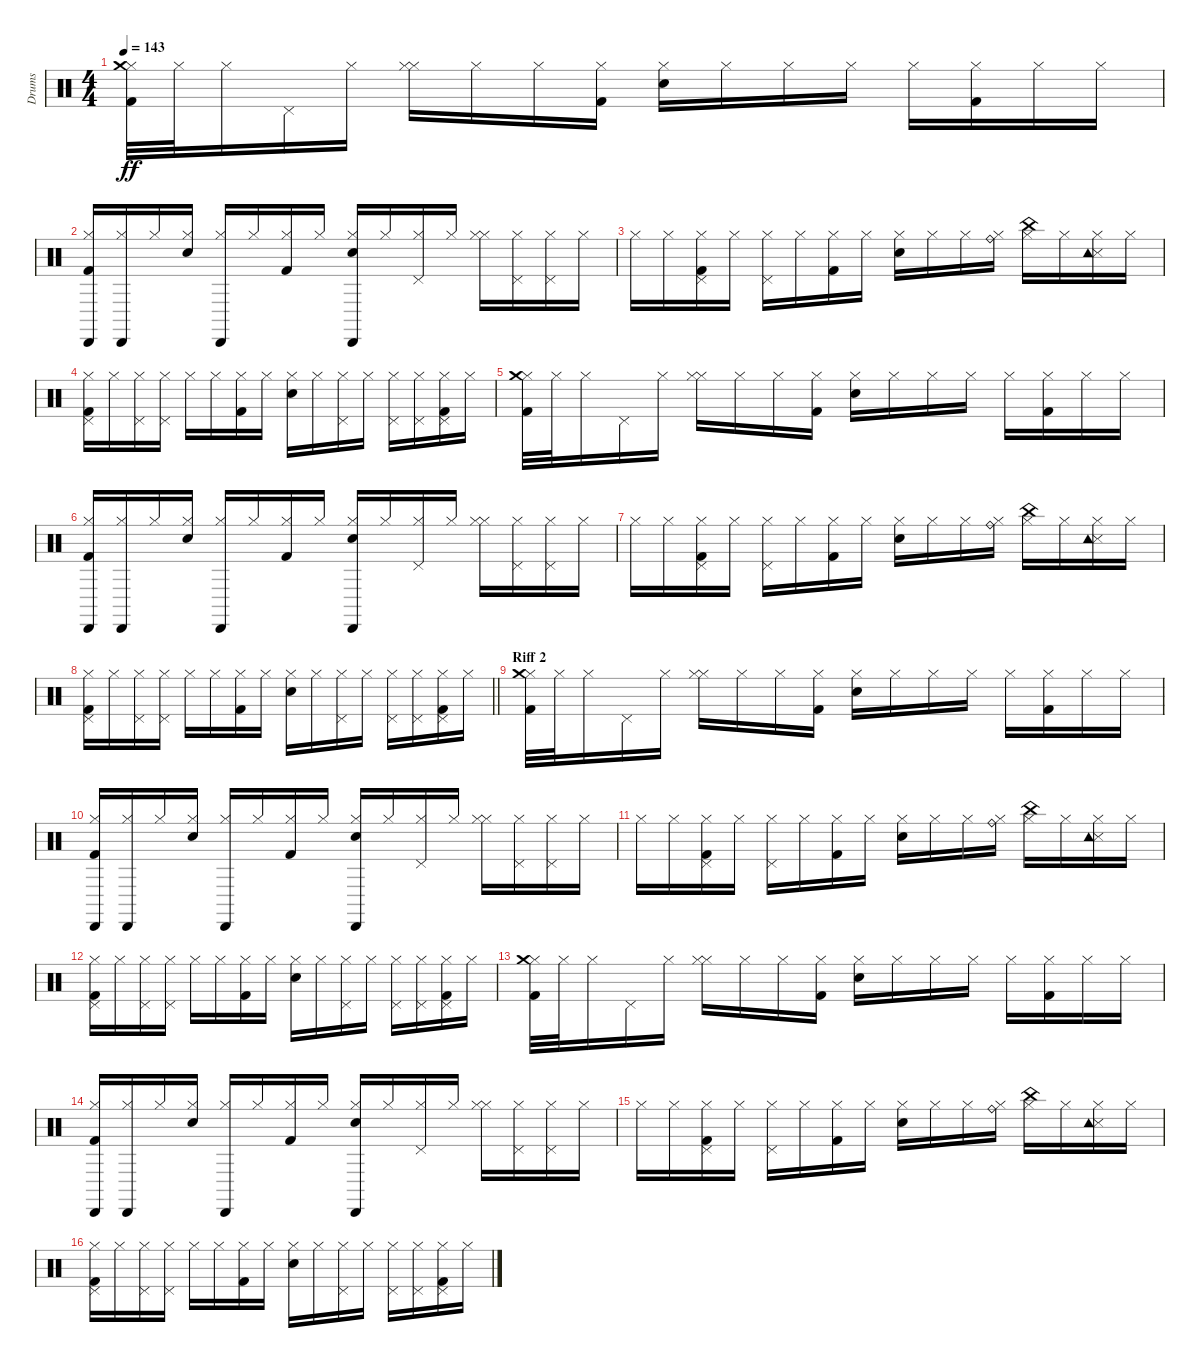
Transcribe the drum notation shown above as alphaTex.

\track ("Drums" "Drums") {instrument percussion}
\staff {score}
\articulation defaults
\ts (4 4)
\tempo 143
\clef neutral
\ks c
("Kick (hit) 2" "Hi-Hat (closed)" "Crash medium (hit)").32{dy ff} "Hi-Hat (closed)".32 "Hi-Hat (closed)".16 "Pedal Hi-Hat (hit)".16 "Hi-Hat (closed)".16 ("Hi-Hat (closed)" "Hi-Hat (closed)").16 "Hi-Hat (closed)".16 "Hi-Hat (closed)".16 ("Kick (hit) 2" "Hi-Hat (closed)").16 ("Snare (hit) 2" "Hi-Hat (closed)").16 "Hi-Hat (closed)".16 "Hi-Hat (closed)".16 "Hi-Hat (closed)".16 "Hi-Hat (closed)".16 ("Kick (hit) 2" "Hi-Hat (closed)").16 "Hi-Hat (closed)".16 "Hi-Hat (closed)".16 |
("Kick (hit) 2" "Cabasa (hit)" "Hi-Hat (closed)").16 ("Cabasa (hit)" "Hi-Hat (closed)").16 "Hi-Hat (closed)".16 ("Snare (hit) 2" "Hi-Hat (closed)").16 ("Cabasa (hit)" "Hi-Hat (closed)").16 "Hi-Hat (closed)".16 ("Kick (hit) 2" "Hi-Hat (closed)").16 "Hi-Hat (closed)".16 ("Snare (hit) 2" "Cabasa (hit)" "Hi-Hat (closed)").16 "Hi-Hat (closed)".16 ("Pedal Hi-Hat (hit)" "Hi-Hat (closed)").16 "Hi-Hat (closed)".16 ("Hi-Hat (closed)" "Hi-Hat (closed)").16 ("Pedal Hi-Hat (hit)" "Hi-Hat (closed)").16 ("Pedal Hi-Hat (hit)" "Hi-Hat (closed)").16 "Hi-Hat (closed)".16 |
"Hi-Hat (closed)".16 "Hi-Hat (closed)".16 ("Kick (hit) 2" "Pedal Hi-Hat (hit)" "Hi-Hat (closed)").16 "Hi-Hat (closed)".16 ("Hi-Hat (closed)" "Pedal Hi-Hat (hit)").16 "Hi-Hat (closed)".16 ("Kick (hit) 2" "Hi-Hat (closed)").16 "Hi-Hat (closed)".16 ("Snare (hit) 2" "Hi-Hat (closed)").16 "Hi-Hat (closed)".16 "Hi-Hat (closed)".16 ("Ride (bell)" "Hi-Hat (closed)").16 ("China (hit)" "Hi-Hat (closed)").16 "Hi-Hat (closed)".16 ("Snare (side stick) 3" "Tambourine (hit)" "Hi-Hat (closed)").16 "Hi-Hat (closed)".16 |
("Kick (hit) 2" "Hi-Hat (closed)" "Pedal Hi-Hat (hit)").16 "Hi-Hat (closed)".16 ("Hi-Hat (closed)" "Pedal Hi-Hat (hit)").16 ("Hi-Hat (closed)" "Pedal Hi-Hat (hit)").16 "Hi-Hat (closed)".16 "Hi-Hat (closed)".16 ("Kick (hit) 2" "Hi-Hat (closed)").16 "Hi-Hat (closed)".16 ("Snare (hit) 2" "Hi-Hat (closed)").16 "Hi-Hat (closed)".16 ("Hi-Hat (closed)" "Pedal Hi-Hat (hit)").16 "Hi-Hat (closed)".16 ("Hi-Hat (closed)" "Pedal Hi-Hat (hit)").16 ("Hi-Hat (closed)" "Pedal Hi-Hat (hit)").16 ("Kick (hit) 2" "Hi-Hat (closed)" "Pedal Hi-Hat (hit)").16 "Hi-Hat (closed)".16 |
("Kick (hit) 2" "Hi-Hat (closed)" "Crash medium (hit)").32 "Hi-Hat (closed)".32 "Hi-Hat (closed)".16 "Pedal Hi-Hat (hit)".16 "Hi-Hat (closed)".16 ("Hi-Hat (closed)" "Hi-Hat (closed)").16 "Hi-Hat (closed)".16 "Hi-Hat (closed)".16 ("Kick (hit) 2" "Hi-Hat (closed)").16 ("Snare (hit) 2" "Hi-Hat (closed)").16 "Hi-Hat (closed)".16 "Hi-Hat (closed)".16 "Hi-Hat (closed)".16 "Hi-Hat (closed)".16 ("Kick (hit) 2" "Hi-Hat (closed)").16 "Hi-Hat (closed)".16 "Hi-Hat (closed)".16 |
("Kick (hit) 2" "Cabasa (hit)" "Hi-Hat (closed)").16 ("Cabasa (hit)" "Hi-Hat (closed)").16 "Hi-Hat (closed)".16 ("Snare (hit) 2" "Hi-Hat (closed)").16 ("Cabasa (hit)" "Hi-Hat (closed)").16 "Hi-Hat (closed)".16 ("Kick (hit) 2" "Hi-Hat (closed)").16 "Hi-Hat (closed)".16 ("Snare (hit) 2" "Cabasa (hit)" "Hi-Hat (closed)").16 "Hi-Hat (closed)".16 ("Pedal Hi-Hat (hit)" "Hi-Hat (closed)").16 "Hi-Hat (closed)".16 ("Hi-Hat (closed)" "Hi-Hat (closed)").16 ("Pedal Hi-Hat (hit)" "Hi-Hat (closed)").16 ("Pedal Hi-Hat (hit)" "Hi-Hat (closed)").16 "Hi-Hat (closed)".16 |
"Hi-Hat (closed)".16 "Hi-Hat (closed)".16 ("Kick (hit) 2" "Pedal Hi-Hat (hit)" "Hi-Hat (closed)").16 "Hi-Hat (closed)".16 ("Hi-Hat (closed)" "Pedal Hi-Hat (hit)").16 "Hi-Hat (closed)".16 ("Kick (hit) 2" "Hi-Hat (closed)").16 "Hi-Hat (closed)".16 ("Snare (hit) 2" "Hi-Hat (closed)").16 "Hi-Hat (closed)".16 "Hi-Hat (closed)".16 ("Ride (bell)" "Hi-Hat (closed)").16 ("China (hit)" "Hi-Hat (closed)").16 "Hi-Hat (closed)".16 ("Snare (side stick) 3" "Tambourine (hit)" "Hi-Hat (closed)").16 "Hi-Hat (closed)".16 |
\barLineRight lightlight
("Kick (hit) 2" "Hi-Hat (closed)" "Pedal Hi-Hat (hit)").16 "Hi-Hat (closed)".16 ("Hi-Hat (closed)" "Pedal Hi-Hat (hit)").16 ("Hi-Hat (closed)" "Pedal Hi-Hat (hit)").16 "Hi-Hat (closed)".16 "Hi-Hat (closed)".16 ("Kick (hit) 2" "Hi-Hat (closed)").16 "Hi-Hat (closed)".16 ("Snare (hit) 2" "Hi-Hat (closed)").16 "Hi-Hat (closed)".16 ("Hi-Hat (closed)" "Pedal Hi-Hat (hit)").16 "Hi-Hat (closed)".16 ("Hi-Hat (closed)" "Pedal Hi-Hat (hit)").16 ("Hi-Hat (closed)" "Pedal Hi-Hat (hit)").16 ("Kick (hit) 2" "Hi-Hat (closed)" "Pedal Hi-Hat (hit)").16 "Hi-Hat (closed)".16 |
\section ("" "Riff 2")
("Kick (hit) 2" "Hi-Hat (closed)" "Crash medium (hit)").32 "Hi-Hat (closed)".32 "Hi-Hat (closed)".16 "Pedal Hi-Hat (hit)".16 "Hi-Hat (closed)".16 ("Hi-Hat (closed)" "Hi-Hat (closed)").16 "Hi-Hat (closed)".16 "Hi-Hat (closed)".16 ("Kick (hit) 2" "Hi-Hat (closed)").16 ("Snare (hit) 2" "Hi-Hat (closed)").16 "Hi-Hat (closed)".16 "Hi-Hat (closed)".16 "Hi-Hat (closed)".16 "Hi-Hat (closed)".16 ("Kick (hit) 2" "Hi-Hat (closed)").16 "Hi-Hat (closed)".16 "Hi-Hat (closed)".16 |
("Kick (hit) 2" "Cabasa (hit)" "Hi-Hat (closed)").16 ("Cabasa (hit)" "Hi-Hat (closed)").16 "Hi-Hat (closed)".16 ("Snare (hit) 2" "Hi-Hat (closed)").16 ("Cabasa (hit)" "Hi-Hat (closed)").16 "Hi-Hat (closed)".16 ("Kick (hit) 2" "Hi-Hat (closed)").16 "Hi-Hat (closed)".16 ("Snare (hit) 2" "Cabasa (hit)" "Hi-Hat (closed)").16 "Hi-Hat (closed)".16 ("Pedal Hi-Hat (hit)" "Hi-Hat (closed)").16 "Hi-Hat (closed)".16 ("Hi-Hat (closed)" "Hi-Hat (closed)").16 ("Pedal Hi-Hat (hit)" "Hi-Hat (closed)").16 ("Pedal Hi-Hat (hit)" "Hi-Hat (closed)").16 "Hi-Hat (closed)".16 |
"Hi-Hat (closed)".16 "Hi-Hat (closed)".16 ("Kick (hit) 2" "Pedal Hi-Hat (hit)" "Hi-Hat (closed)").16 "Hi-Hat (closed)".16 ("Hi-Hat (closed)" "Pedal Hi-Hat (hit)").16 "Hi-Hat (closed)".16 ("Kick (hit) 2" "Hi-Hat (closed)").16 "Hi-Hat (closed)".16 ("Snare (hit) 2" "Hi-Hat (closed)").16 "Hi-Hat (closed)".16 "Hi-Hat (closed)".16 ("Ride (bell)" "Hi-Hat (closed)").16 ("China (hit)" "Hi-Hat (closed)").16 "Hi-Hat (closed)".16 ("Snare (side stick) 3" "Tambourine (hit)" "Hi-Hat (closed)").16 "Hi-Hat (closed)".16 |
("Kick (hit) 2" "Hi-Hat (closed)" "Pedal Hi-Hat (hit)").16 "Hi-Hat (closed)".16 ("Hi-Hat (closed)" "Pedal Hi-Hat (hit)").16 ("Hi-Hat (closed)" "Pedal Hi-Hat (hit)").16 "Hi-Hat (closed)".16 "Hi-Hat (closed)".16 ("Kick (hit) 2" "Hi-Hat (closed)").16 "Hi-Hat (closed)".16 ("Snare (hit) 2" "Hi-Hat (closed)").16 "Hi-Hat (closed)".16 ("Hi-Hat (closed)" "Pedal Hi-Hat (hit)").16 "Hi-Hat (closed)".16 ("Hi-Hat (closed)" "Pedal Hi-Hat (hit)").16 ("Hi-Hat (closed)" "Pedal Hi-Hat (hit)").16 ("Kick (hit) 2" "Hi-Hat (closed)" "Pedal Hi-Hat (hit)").16 "Hi-Hat (closed)".16 |
("Kick (hit) 2" "Hi-Hat (closed)" "Crash medium (hit)").32 "Hi-Hat (closed)".32 "Hi-Hat (closed)".16 "Pedal Hi-Hat (hit)".16 "Hi-Hat (closed)".16 ("Hi-Hat (closed)" "Hi-Hat (closed)").16 "Hi-Hat (closed)".16 "Hi-Hat (closed)".16 ("Kick (hit) 2" "Hi-Hat (closed)").16 ("Snare (hit) 2" "Hi-Hat (closed)").16 "Hi-Hat (closed)".16 "Hi-Hat (closed)".16 "Hi-Hat (closed)".16 "Hi-Hat (closed)".16 ("Kick (hit) 2" "Hi-Hat (closed)").16 "Hi-Hat (closed)".16 "Hi-Hat (closed)".16 |
("Kick (hit) 2" "Cabasa (hit)" "Hi-Hat (closed)").16 ("Cabasa (hit)" "Hi-Hat (closed)").16 "Hi-Hat (closed)".16 ("Snare (hit) 2" "Hi-Hat (closed)").16 ("Cabasa (hit)" "Hi-Hat (closed)").16 "Hi-Hat (closed)".16 ("Kick (hit) 2" "Hi-Hat (closed)").16 "Hi-Hat (closed)".16 ("Snare (hit) 2" "Cabasa (hit)" "Hi-Hat (closed)").16 "Hi-Hat (closed)".16 ("Pedal Hi-Hat (hit)" "Hi-Hat (closed)").16 "Hi-Hat (closed)".16 ("Hi-Hat (closed)" "Hi-Hat (closed)").16 ("Pedal Hi-Hat (hit)" "Hi-Hat (closed)").16 ("Pedal Hi-Hat (hit)" "Hi-Hat (closed)").16 "Hi-Hat (closed)".16 |
"Hi-Hat (closed)".16 "Hi-Hat (closed)".16 ("Kick (hit) 2" "Pedal Hi-Hat (hit)" "Hi-Hat (closed)").16 "Hi-Hat (closed)".16 ("Hi-Hat (closed)" "Pedal Hi-Hat (hit)").16 "Hi-Hat (closed)".16 ("Kick (hit) 2" "Hi-Hat (closed)").16 "Hi-Hat (closed)".16 ("Snare (hit) 2" "Hi-Hat (closed)").16 "Hi-Hat (closed)".16 "Hi-Hat (closed)".16 ("Ride (bell)" "Hi-Hat (closed)").16 ("China (hit)" "Hi-Hat (closed)").16 "Hi-Hat (closed)".16 ("Snare (side stick) 3" "Tambourine (hit)" "Hi-Hat (closed)").16 "Hi-Hat (closed)".16 |
("Kick (hit) 2" "Hi-Hat (closed)" "Pedal Hi-Hat (hit)").16 "Hi-Hat (closed)".16 ("Hi-Hat (closed)" "Pedal Hi-Hat (hit)").16 ("Hi-Hat (closed)" "Pedal Hi-Hat (hit)").16 "Hi-Hat (closed)".16 "Hi-Hat (closed)".16 ("Kick (hit) 2" "Hi-Hat (closed)").16 "Hi-Hat (closed)".16 ("Snare (hit) 2" "Hi-Hat (closed)").16 "Hi-Hat (closed)".16 ("Hi-Hat (closed)" "Pedal Hi-Hat (hit)").16 "Hi-Hat (closed)".16 ("Hi-Hat (closed)" "Pedal Hi-Hat (hit)").16 ("Hi-Hat (closed)" "Pedal Hi-Hat (hit)").16 ("Kick (hit) 2" "Hi-Hat (closed)" "Pedal Hi-Hat (hit)").16 "Hi-Hat (closed)".16
